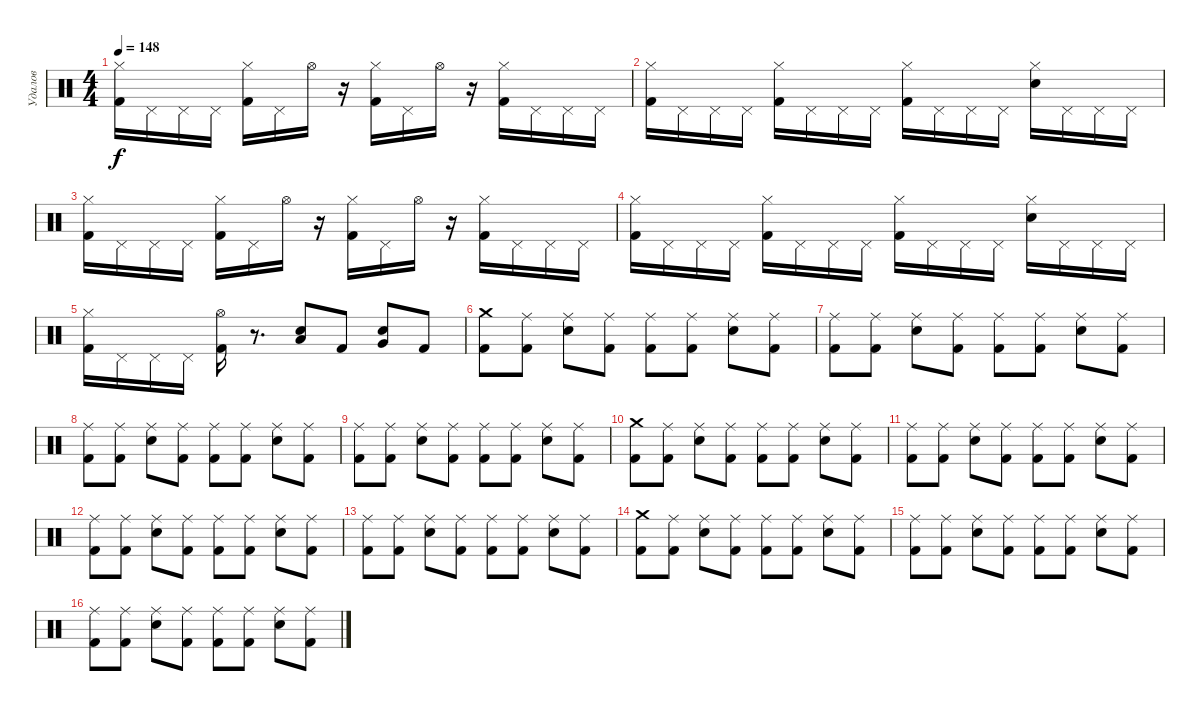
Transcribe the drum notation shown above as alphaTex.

\track ("Удалов" "Удалов") {instrument percussion}
\staff {score}
\articulation defaults
\ts (4 4)
\tempo 148
\clef neutral
\ks c
("Kick (hit) 2" "Hi-Hat (closed)").16{dy f} "Pedal Hi-Hat (hit)".16 "Pedal Hi-Hat (hit)".16 "Pedal Hi-Hat (hit)".16 ("Kick (hit) 2" "Hi-Hat (closed)").16 "Pedal Hi-Hat (hit)".16 "Hi-Hat (open)".16 r.16 ("Kick (hit) 2" "Hi-Hat (closed)").16 "Pedal Hi-Hat (hit)".16 "Hi-Hat (open)".16 r.16 ("Kick (hit) 2" "Hi-Hat (closed)").16 "Pedal Hi-Hat (hit)".16 "Pedal Hi-Hat (hit)".16 "Pedal Hi-Hat (hit)".16 |
("Kick (hit) 2" "Hi-Hat (closed)").16 "Pedal Hi-Hat (hit)".16 "Pedal Hi-Hat (hit)".16 "Pedal Hi-Hat (hit)".16 ("Kick (hit) 2" "Hi-Hat (closed)").16 "Pedal Hi-Hat (hit)".16 "Pedal Hi-Hat (hit)".16 "Pedal Hi-Hat (hit)".16 ("Kick (hit) 2" "Hi-Hat (closed)").16 "Pedal Hi-Hat (hit)".16 "Pedal Hi-Hat (hit)".16 "Pedal Hi-Hat (hit)".16 ("Hi-Hat (closed)" "Snare (hit) 2").16 "Pedal Hi-Hat (hit)".16 "Pedal Hi-Hat (hit)".16 "Pedal Hi-Hat (hit)".16 |
("Kick (hit) 2" "Hi-Hat (closed)").16 "Pedal Hi-Hat (hit)".16 "Pedal Hi-Hat (hit)".16 "Pedal Hi-Hat (hit)".16 ("Kick (hit) 2" "Hi-Hat (closed)").16 "Pedal Hi-Hat (hit)".16 "Hi-Hat (open)".16 r.16 ("Kick (hit) 2" "Hi-Hat (closed)").16 "Pedal Hi-Hat (hit)".16 "Hi-Hat (open)".16 r.16 ("Kick (hit) 2" "Hi-Hat (closed)").16 "Pedal Hi-Hat (hit)".16 "Pedal Hi-Hat (hit)".16 "Pedal Hi-Hat (hit)".16 |
("Kick (hit) 2" "Hi-Hat (closed)").16 "Pedal Hi-Hat (hit)".16 "Pedal Hi-Hat (hit)".16 "Pedal Hi-Hat (hit)".16 ("Kick (hit) 2" "Hi-Hat (closed)").16 "Pedal Hi-Hat (hit)".16 "Pedal Hi-Hat (hit)".16 "Pedal Hi-Hat (hit)".16 ("Kick (hit) 2" "Hi-Hat (closed)").16 "Pedal Hi-Hat (hit)".16 "Pedal Hi-Hat (hit)".16 "Pedal Hi-Hat (hit)".16 ("Hi-Hat (closed)" "Snare (hit) 2").16 "Pedal Hi-Hat (hit)".16 "Pedal Hi-Hat (hit)".16 "Pedal Hi-Hat (hit)".16 |
("Kick (hit) 2" "Hi-Hat (closed)").16 "Pedal Hi-Hat (hit)".16 "Pedal Hi-Hat (hit)".16 "Pedal Hi-Hat (hit)".16 ("Kick (hit) 2" "Hi-Hat (open)").16 r.8{d} ("Low Tom (hit)" "Snare (hit) 2").8 "Kick (hit) 2".8 ("Very Low Tom (hit)" "Snare (hit) 2").8 "Kick (hit) 2".8 |
("Kick (hit) 2" "Crash medium (hit)").8 ("Ride (middle)" "Kick (hit) 2").8 ("Ride (middle)" "Snare (hit) 2").8 ("Ride (middle)" "Kick (hit) 2").8 ("Ride (middle)" "Kick (hit) 2").8 ("Ride (middle)" "Kick (hit) 2").8 ("Ride (middle)" "Snare (hit) 2").8 ("Ride (middle)" "Kick (hit) 2").8 |
("Kick (hit) 2" "Ride (middle)").8 ("Ride (middle)" "Kick (hit) 2").8 ("Ride (middle)" "Snare (hit) 2").8 ("Ride (middle)" "Kick (hit) 2").8 ("Ride (middle)" "Kick (hit) 2").8 ("Ride (middle)" "Kick (hit) 2").8 ("Ride (middle)" "Snare (hit) 2").8 ("Ride (middle)" "Kick (hit) 2").8 |
("Kick (hit) 2" "Ride (middle)").8 ("Ride (middle)" "Kick (hit) 2").8 ("Ride (middle)" "Snare (hit) 2").8 ("Ride (middle)" "Kick (hit) 2").8 ("Ride (middle)" "Kick (hit) 2").8 ("Ride (middle)" "Kick (hit) 2").8 ("Ride (middle)" "Snare (hit) 2").8 ("Ride (middle)" "Kick (hit) 2").8 |
("Kick (hit) 2" "Ride (middle)").8 ("Ride (middle)" "Kick (hit) 2").8 ("Ride (middle)" "Snare (hit) 2").8 ("Ride (middle)" "Kick (hit) 2").8 ("Ride (middle)" "Kick (hit) 2").8 ("Ride (middle)" "Kick (hit) 2").8 ("Ride (middle)" "Snare (hit) 2").8 ("Ride (middle)" "Kick (hit) 2").8 |
("Kick (hit) 2" "Crash medium (hit)").8 ("Ride (middle)" "Kick (hit) 2").8 ("Ride (middle)" "Snare (hit) 2").8 ("Ride (middle)" "Kick (hit) 2").8 ("Ride (middle)" "Kick (hit) 2").8 ("Ride (middle)" "Kick (hit) 2").8 ("Ride (middle)" "Snare (hit) 2").8 ("Ride (middle)" "Kick (hit) 2").8 |
("Kick (hit) 2" "Ride (middle)").8 ("Ride (middle)" "Kick (hit) 2").8 ("Ride (middle)" "Snare (hit) 2").8 ("Ride (middle)" "Kick (hit) 2").8 ("Ride (middle)" "Kick (hit) 2").8 ("Ride (middle)" "Kick (hit) 2").8 ("Ride (middle)" "Snare (hit) 2").8 ("Ride (middle)" "Kick (hit) 2").8 |
("Kick (hit) 2" "Ride (middle)").8 ("Ride (middle)" "Kick (hit) 2").8 ("Ride (middle)" "Snare (hit) 2").8 ("Ride (middle)" "Kick (hit) 2").8 ("Ride (middle)" "Kick (hit) 2").8 ("Ride (middle)" "Kick (hit) 2").8 ("Ride (middle)" "Snare (hit) 2").8 ("Ride (middle)" "Kick (hit) 2").8 |
("Kick (hit) 2" "Ride (middle)").8 ("Ride (middle)" "Kick (hit) 2").8 ("Ride (middle)" "Snare (hit) 2").8 ("Ride (middle)" "Kick (hit) 2").8 ("Ride (middle)" "Kick (hit) 2").8 ("Ride (middle)" "Kick (hit) 2").8 ("Ride (middle)" "Snare (hit) 2").8 ("Ride (middle)" "Kick (hit) 2").8 |
("Kick (hit) 2" "Crash medium (hit)").8 ("Ride (middle)" "Kick (hit) 2").8 ("Ride (middle)" "Snare (hit) 2").8 ("Ride (middle)" "Kick (hit) 2").8 ("Ride (middle)" "Kick (hit) 2").8 ("Ride (middle)" "Kick (hit) 2").8 ("Ride (middle)" "Snare (hit) 2").8 ("Ride (middle)" "Kick (hit) 2").8 |
("Kick (hit) 2" "Ride (middle)").8 ("Ride (middle)" "Kick (hit) 2").8 ("Ride (middle)" "Snare (hit) 2").8 ("Ride (middle)" "Kick (hit) 2").8 ("Ride (middle)" "Kick (hit) 2").8 ("Ride (middle)" "Kick (hit) 2").8 ("Ride (middle)" "Snare (hit) 2").8 ("Ride (middle)" "Kick (hit) 2").8 |
("Kick (hit) 2" "Ride (middle)").8 ("Ride (middle)" "Kick (hit) 2").8 ("Ride (middle)" "Snare (hit) 2").8 ("Ride (middle)" "Kick (hit) 2").8 ("Ride (middle)" "Kick (hit) 2").8 ("Ride (middle)" "Kick (hit) 2").8 ("Ride (middle)" "Snare (hit) 2").8 ("Ride (middle)" "Kick (hit) 2").8
